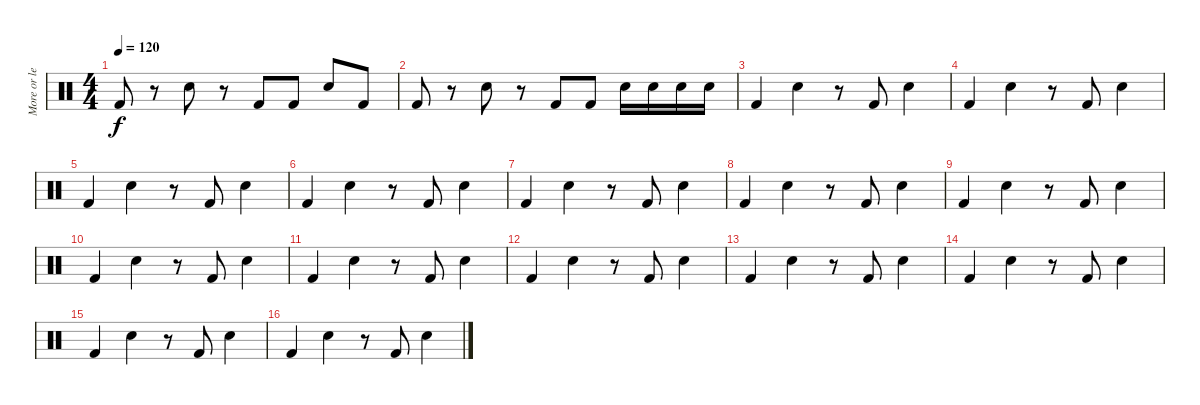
\track ("More or less Drumming" "More or le") {instrument percussion}
\staff {score}
\articulation defaults
\ts (4 4)
\tempo 120
\clef neutral
\ks c "Kick (hit) 2".8{dy f}
r.8 "Electric Snare (hit)".8 r.8 "Kick (hit) 2".8 "Kick (hit) 2".8 "Electric Snare (hit)".8 "Kick (hit) 2".8 |
"Kick (hit) 2".8 r.8 "Electric Snare (hit)".8 r.8 "Kick (hit) 2".8 "Kick (hit) 2".8 "Electric Snare (hit)".16 "Electric Snare (hit)".16 "Electric Snare (hit)".16 "Electric Snare (hit)".16 |
"Kick (hit) 2".4 "Electric Snare (hit)".4 r.8 "Kick (hit) 2".8 "Electric Snare (hit)".4 |
"Kick (hit) 2".4 "Electric Snare (hit)".4 r.8 "Kick (hit) 2".8 "Electric Snare (hit)".4 |
"Kick (hit) 2".4 "Electric Snare (hit)".4 r.8 "Kick (hit) 2".8 "Electric Snare (hit)".4 |
"Kick (hit) 2".4 "Electric Snare (hit)".4 r.8 "Kick (hit) 2".8 "Electric Snare (hit)".4 |
"Kick (hit) 2".4 "Electric Snare (hit)".4 r.8 "Kick (hit) 2".8 "Electric Snare (hit)".4 |
"Kick (hit) 2".4 "Electric Snare (hit)".4 r.8 "Kick (hit) 2".8 "Electric Snare (hit)".4 |
"Kick (hit) 2".4 "Electric Snare (hit)".4 r.8 "Kick (hit) 2".8 "Electric Snare (hit)".4 |
"Kick (hit) 2".4 "Electric Snare (hit)".4 r.8 "Kick (hit) 2".8 "Electric Snare (hit)".4 |
"Kick (hit) 2".4 "Electric Snare (hit)".4 r.8 "Kick (hit) 2".8 "Electric Snare (hit)".4 |
"Kick (hit) 2".4 "Electric Snare (hit)".4 r.8 "Kick (hit) 2".8 "Electric Snare (hit)".4 |
"Kick (hit) 2".4 "Electric Snare (hit)".4 r.8 "Kick (hit) 2".8 "Electric Snare (hit)".4 |
"Kick (hit) 2".4 "Electric Snare (hit)".4 r.8 "Kick (hit) 2".8 "Electric Snare (hit)".4 |
"Kick (hit) 2".4 "Electric Snare (hit)".4 r.8 "Kick (hit) 2".8 "Electric Snare (hit)".4 |
"Kick (hit) 2".4 "Electric Snare (hit)".4 r.8 "Kick (hit) 2".8 "Electric Snare (hit)".4
